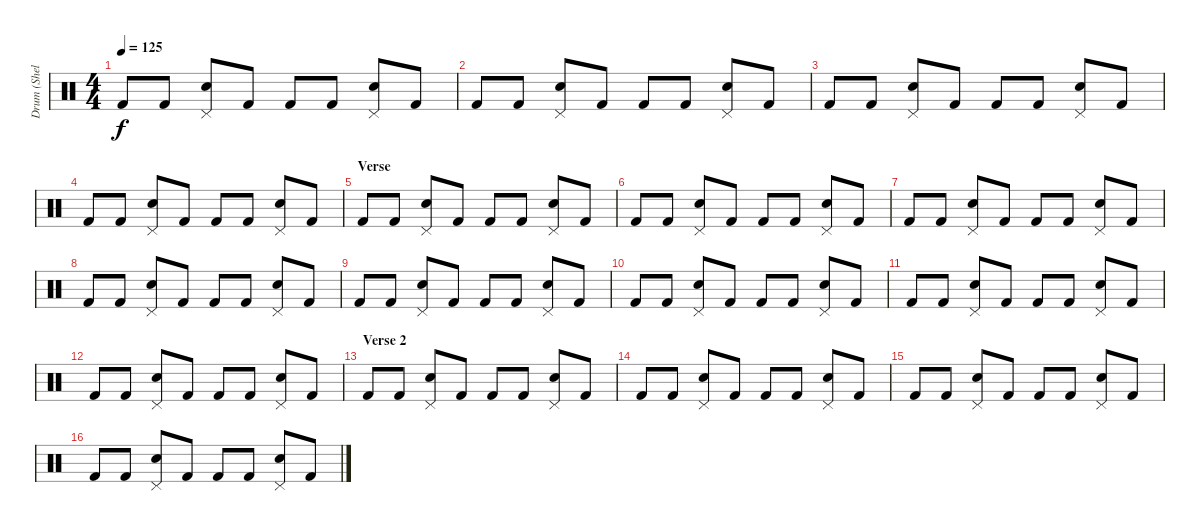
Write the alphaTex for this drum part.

\track ("Drum (Shelley)" "Drum (Shel") {instrument percussion}
\staff {score}
\articulation defaults
\ts (4 4)
\tempo 125
\clef neutral
\ks c "Kick (hit) 2".8{dy f} "Kick (hit) 2".8
("Pedal Hi-Hat (hit)" "Electric Snare (hit)").8 "Kick (hit) 2".8 "Kick (hit) 2".8 "Kick (hit) 2".8 ("Pedal Hi-Hat (hit)" "Electric Snare (hit)").8 "Kick (hit) 2".8 |
"Kick (hit) 2".8 "Kick (hit) 2".8 ("Pedal Hi-Hat (hit)" "Electric Snare (hit)").8 "Kick (hit) 2".8 "Kick (hit) 2".8 "Kick (hit) 2".8 ("Pedal Hi-Hat (hit)" "Electric Snare (hit)").8 "Kick (hit) 2".8 |
"Kick (hit) 2".8 "Kick (hit) 2".8 ("Pedal Hi-Hat (hit)" "Electric Snare (hit)").8 "Kick (hit) 2".8 "Kick (hit) 2".8 "Kick (hit) 2".8 ("Pedal Hi-Hat (hit)" "Electric Snare (hit)").8 "Kick (hit) 2".8 |
"Kick (hit) 2".8 "Kick (hit) 2".8 ("Pedal Hi-Hat (hit)" "Electric Snare (hit)").8 "Kick (hit) 2".8 "Kick (hit) 2".8 "Kick (hit) 2".8 ("Pedal Hi-Hat (hit)" "Electric Snare (hit)").8 "Kick (hit) 2".8 |
\section ("" "Verse")
"Kick (hit) 2".8 "Kick (hit) 2".8 ("Pedal Hi-Hat (hit)" "Electric Snare (hit)").8 "Kick (hit) 2".8 "Kick (hit) 2".8 "Kick (hit) 2".8 ("Pedal Hi-Hat (hit)" "Electric Snare (hit)").8 "Kick (hit) 2".8 |
"Kick (hit) 2".8 "Kick (hit) 2".8 ("Pedal Hi-Hat (hit)" "Electric Snare (hit)").8 "Kick (hit) 2".8 "Kick (hit) 2".8 "Kick (hit) 2".8 ("Pedal Hi-Hat (hit)" "Electric Snare (hit)").8 "Kick (hit) 2".8 |
"Kick (hit) 2".8 "Kick (hit) 2".8 ("Pedal Hi-Hat (hit)" "Electric Snare (hit)").8 "Kick (hit) 2".8 "Kick (hit) 2".8 "Kick (hit) 2".8 ("Pedal Hi-Hat (hit)" "Electric Snare (hit)").8 "Kick (hit) 2".8 |
"Kick (hit) 2".8 "Kick (hit) 2".8 ("Pedal Hi-Hat (hit)" "Electric Snare (hit)").8 "Kick (hit) 2".8 "Kick (hit) 2".8 "Kick (hit) 2".8 ("Pedal Hi-Hat (hit)" "Electric Snare (hit)").8 "Kick (hit) 2".8 |
"Kick (hit) 2".8 "Kick (hit) 2".8 ("Pedal Hi-Hat (hit)" "Electric Snare (hit)").8 "Kick (hit) 2".8 "Kick (hit) 2".8 "Kick (hit) 2".8 ("Pedal Hi-Hat (hit)" "Electric Snare (hit)").8 "Kick (hit) 2".8 |
"Kick (hit) 2".8 "Kick (hit) 2".8 ("Pedal Hi-Hat (hit)" "Electric Snare (hit)").8 "Kick (hit) 2".8 "Kick (hit) 2".8 "Kick (hit) 2".8 ("Pedal Hi-Hat (hit)" "Electric Snare (hit)").8 "Kick (hit) 2".8 |
"Kick (hit) 2".8 "Kick (hit) 2".8 ("Pedal Hi-Hat (hit)" "Electric Snare (hit)").8 "Kick (hit) 2".8 "Kick (hit) 2".8 "Kick (hit) 2".8 ("Pedal Hi-Hat (hit)" "Electric Snare (hit)").8 "Kick (hit) 2".8 |
"Kick (hit) 2".8 "Kick (hit) 2".8 ("Pedal Hi-Hat (hit)" "Electric Snare (hit)").8 "Kick (hit) 2".8 "Kick (hit) 2".8 "Kick (hit) 2".8 ("Pedal Hi-Hat (hit)" "Electric Snare (hit)").8 "Kick (hit) 2".8 |
\section ("" "Verse 2")
"Kick (hit) 2".8 "Kick (hit) 2".8 ("Pedal Hi-Hat (hit)" "Electric Snare (hit)").8 "Kick (hit) 2".8 "Kick (hit) 2".8 "Kick (hit) 2".8 ("Pedal Hi-Hat (hit)" "Electric Snare (hit)").8 "Kick (hit) 2".8 |
"Kick (hit) 2".8 "Kick (hit) 2".8 ("Pedal Hi-Hat (hit)" "Electric Snare (hit)").8 "Kick (hit) 2".8 "Kick (hit) 2".8 "Kick (hit) 2".8 ("Pedal Hi-Hat (hit)" "Electric Snare (hit)").8 "Kick (hit) 2".8 |
"Kick (hit) 2".8 "Kick (hit) 2".8 ("Pedal Hi-Hat (hit)" "Electric Snare (hit)").8 "Kick (hit) 2".8 "Kick (hit) 2".8 "Kick (hit) 2".8 ("Pedal Hi-Hat (hit)" "Electric Snare (hit)").8 "Kick (hit) 2".8 |
"Kick (hit) 2".8 "Kick (hit) 2".8 ("Pedal Hi-Hat (hit)" "Electric Snare (hit)").8 "Kick (hit) 2".8 "Kick (hit) 2".8 "Kick (hit) 2".8 ("Pedal Hi-Hat (hit)" "Electric Snare (hit)").8 "Kick (hit) 2".8
